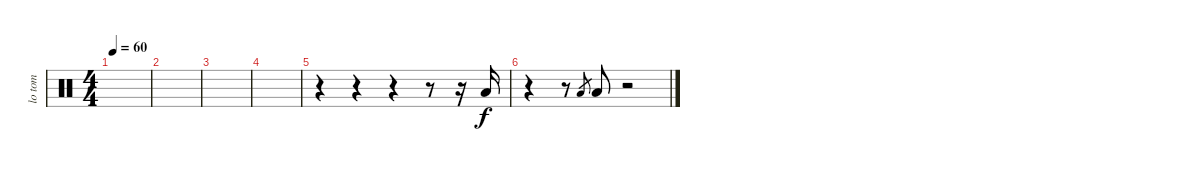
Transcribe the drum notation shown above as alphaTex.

\track ("lo tom" "lo tom") {instrument percussion}
\staff {score}
\articulation defaults
\ts (4 4)
\tempo 60
\clef neutral
\ks c
|
|
|
|
r.4 r.4 r.4 r.8 r.16 "Low Tom (hit)".16 |
r.4 r.8 "Low Tom (hit)".8{gr} "Low Tom (hit)".8 r.2
